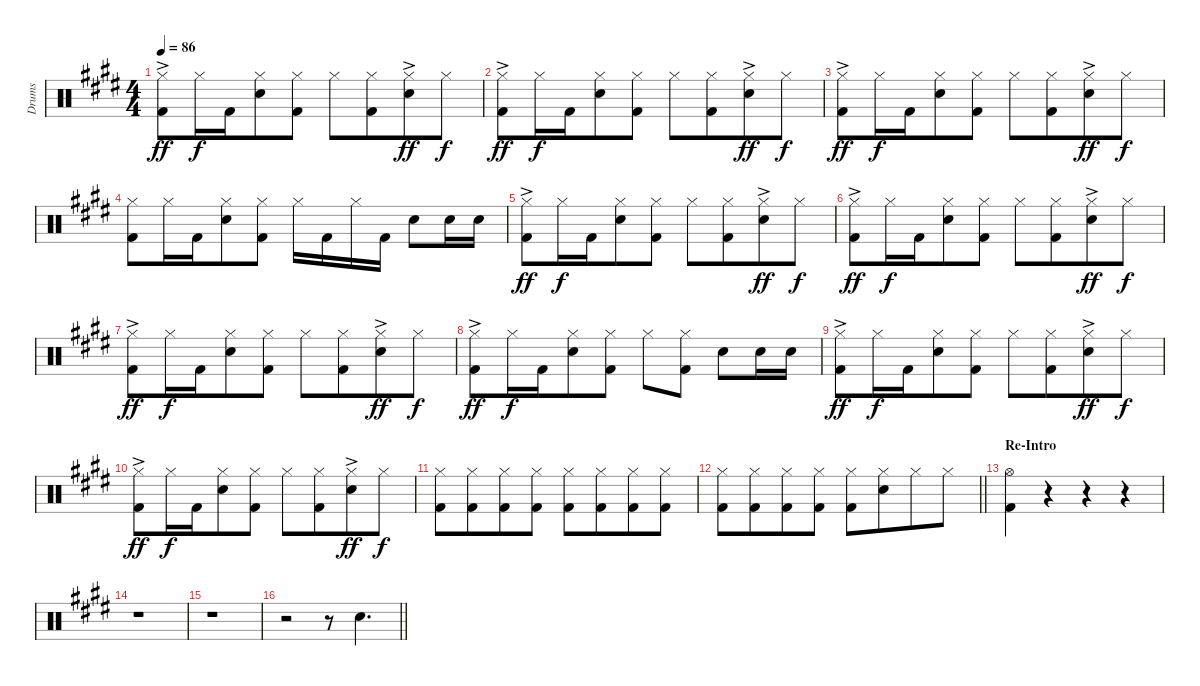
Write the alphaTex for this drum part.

\track ("Drums" "Drums") {instrument percussion}
\staff {score}
\articulation defaults
\ts (4 4)
\tempo 86
\clef neutral
\ks e
("Hi-Hat (closed)" "Kick (hit) 2"{ac}).8{dy ff} "Hi-Hat (closed)".16{dy f} "Kick (hit) 2".16{beam merge} ("Hi-Hat (closed)" "Electric Snare (hit)").8 ("Hi-Hat (closed)" "Kick (hit) 2").8 "Hi-Hat (closed)".8 ("Hi-Hat (closed)" "Kick (hit) 2").8{beam merge} ("Hi-Hat (closed)" "Electric Snare (hit)"{ac}).8{dy ff} "Hi-Hat (closed)".8{dy f} |
("Hi-Hat (closed)" "Kick (hit) 2"{ac}).8{dy ff} "Hi-Hat (closed)".16{dy f} "Kick (hit) 2".16{beam merge} ("Hi-Hat (closed)" "Electric Snare (hit)").8 ("Hi-Hat (closed)" "Kick (hit) 2").8 "Hi-Hat (closed)".8 ("Hi-Hat (closed)" "Kick (hit) 2").8{beam merge} ("Hi-Hat (closed)" "Electric Snare (hit)"{ac}).8{dy ff} "Hi-Hat (closed)".8{dy f} |
("Hi-Hat (closed)" "Kick (hit) 2"{ac}).8{dy ff} "Hi-Hat (closed)".16{dy f} "Kick (hit) 2".16{beam merge} ("Hi-Hat (closed)" "Electric Snare (hit)").8 ("Hi-Hat (closed)" "Kick (hit) 2").8 "Hi-Hat (closed)".8 ("Hi-Hat (closed)" "Kick (hit) 2").8{beam merge} ("Hi-Hat (closed)" "Electric Snare (hit)"{ac}).8{dy ff} "Hi-Hat (closed)".8{dy f} |
("Hi-Hat (closed)" "Kick (hit) 2").8 "Hi-Hat (closed)".16 "Kick (hit) 2".16{beam merge} ("Hi-Hat (closed)" "Electric Snare (hit)").8 ("Hi-Hat (closed)" "Kick (hit) 2").8 "Hi-Hat (closed)".16 "Kick (hit) 2".16 "Hi-Hat (closed)".16 "Kick (hit) 2".16 "Electric Snare (hit)".8 "Electric Snare (hit)".16 "Electric Snare (hit)".16 |
("Hi-Hat (closed)" "Kick (hit) 2"{ac}).8{dy ff} "Hi-Hat (closed)".16{dy f} "Kick (hit) 2".16{beam merge} ("Hi-Hat (closed)" "Electric Snare (hit)").8 ("Hi-Hat (closed)" "Kick (hit) 2").8 "Hi-Hat (closed)".8 ("Hi-Hat (closed)" "Kick (hit) 2").8{beam merge} ("Hi-Hat (closed)" "Electric Snare (hit)"{ac}).8{dy ff} "Hi-Hat (closed)".8{dy f} |
("Hi-Hat (closed)" "Kick (hit) 2"{ac}).8{dy ff} "Hi-Hat (closed)".16{dy f} "Kick (hit) 2".16{beam merge} ("Hi-Hat (closed)" "Electric Snare (hit)").8 ("Hi-Hat (closed)" "Kick (hit) 2").8 "Hi-Hat (closed)".8 ("Hi-Hat (closed)" "Kick (hit) 2").8{beam merge} ("Hi-Hat (closed)" "Electric Snare (hit)"{ac}).8{dy ff} "Hi-Hat (closed)".8{dy f} |
("Hi-Hat (closed)" "Kick (hit) 2"{ac}).8{dy ff} "Hi-Hat (closed)".16{dy f} "Kick (hit) 2".16{beam merge} ("Hi-Hat (closed)" "Electric Snare (hit)").8 ("Hi-Hat (closed)" "Kick (hit) 2").8 "Hi-Hat (closed)".8 ("Hi-Hat (closed)" "Kick (hit) 2").8{beam merge} ("Hi-Hat (closed)" "Electric Snare (hit)"{ac}).8{dy ff} "Hi-Hat (closed)".8{dy f} |
("Hi-Hat (closed)" "Kick (hit) 2"{ac}).8{dy ff} "Hi-Hat (closed)".16{dy f} "Kick (hit) 2".16{beam merge} ("Hi-Hat (closed)" "Electric Snare (hit)").8 ("Hi-Hat (closed)" "Kick (hit) 2").8 "Hi-Hat (closed)".8 ("Hi-Hat (closed)" "Kick (hit) 2").8 "Electric Snare (hit)".8 "Electric Snare (hit)".16 "Electric Snare (hit)".16 |
("Hi-Hat (closed)" "Kick (hit) 2"{ac}).8{dy ff} "Hi-Hat (closed)".16{dy f} "Kick (hit) 2".16{beam merge} ("Hi-Hat (closed)" "Electric Snare (hit)").8 ("Hi-Hat (closed)" "Kick (hit) 2").8 "Hi-Hat (closed)".8 ("Hi-Hat (closed)" "Kick (hit) 2").8{beam merge} ("Hi-Hat (closed)" "Electric Snare (hit)"{ac}).8{dy ff} "Hi-Hat (closed)".8{dy f} |
("Hi-Hat (closed)" "Kick (hit) 2"{ac}).8{dy ff} "Hi-Hat (closed)".16{dy f} "Kick (hit) 2".16{beam merge} ("Hi-Hat (closed)" "Electric Snare (hit)").8 ("Hi-Hat (closed)" "Kick (hit) 2").8 "Hi-Hat (closed)".8 ("Hi-Hat (closed)" "Kick (hit) 2").8{beam merge} ("Hi-Hat (closed)" "Electric Snare (hit)"{ac}).8{dy ff} "Hi-Hat (closed)".8{dy f} |
("Hi-Hat (closed)" "Kick (hit) 2").8 ("Hi-Hat (closed)" "Kick (hit) 2").8{beam merge} ("Hi-Hat (closed)" "Kick (hit) 2").8 ("Hi-Hat (closed)" "Kick (hit) 2").8 ("Hi-Hat (closed)" "Kick (hit) 2").8 ("Hi-Hat (closed)" "Kick (hit) 2").8{beam merge} ("Hi-Hat (closed)" "Kick (hit) 2").8 ("Hi-Hat (closed)" "Kick (hit) 2").8 |
\barLineRight lightlight
("Hi-Hat (closed)" "Kick (hit) 2").8 ("Hi-Hat (closed)" "Kick (hit) 2").8{beam merge} ("Hi-Hat (closed)" "Kick (hit) 2").8 ("Hi-Hat (closed)" "Kick (hit) 2").8 ("Hi-Hat (closed)" "Kick (hit) 2").8 ("Hi-Hat (closed)" "Electric Snare (hit)").8{beam merge} "Hi-Hat (closed)".8 "Hi-Hat (closed)".8 |
\section ("" "Re-Intro")
("Hi-Hat (open)" "Kick (hit) 2").4 r.4 r.4 r.4 |
r.1 |
r.1 |
\barLineRight lightlight
r.2 r.8 "Electric Snare (hit)".4{d}
